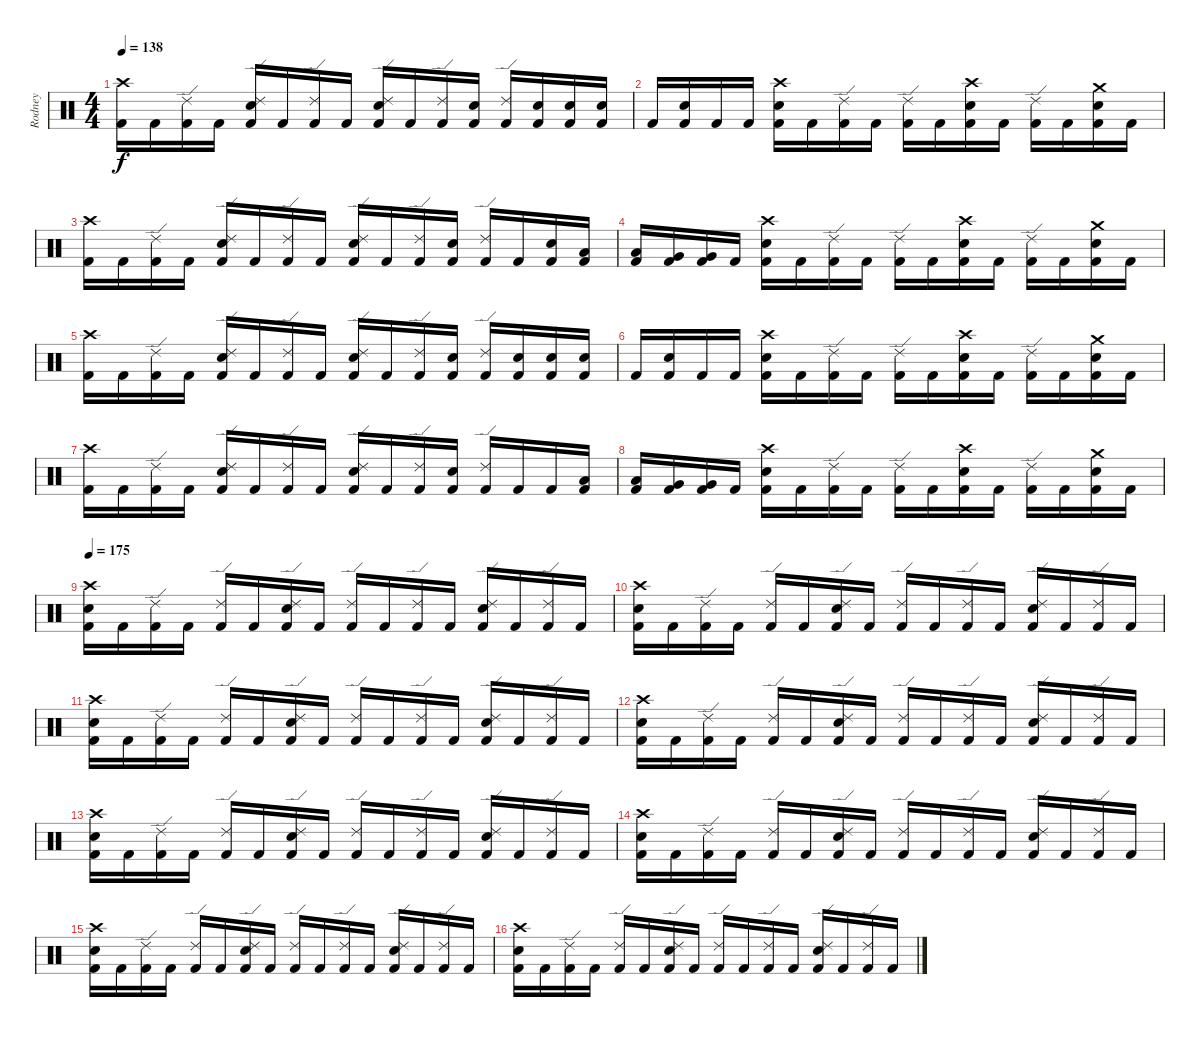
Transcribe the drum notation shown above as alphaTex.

\track ("Rodney" "Rodney") {instrument percussion}
\staff {score}
\articulation defaults
\ts (4 4)
\tempo 138
\clef neutral
\ks c
("Crash high (hit)" "Kick (hit) 2").16{dy f} "Kick (hit) 2".16 ("Ride (edge) 2" "Kick (hit) 2").16 "Kick (hit) 2".16 ("Ride (edge) 2" "Snare (hit) 2" "Kick (hit) 2").16 "Kick (hit) 2".16 ("Ride (edge) 2" "Kick (hit) 2").16 "Kick (hit) 2".16 ("Ride (edge) 2" "Snare (hit) 2" "Kick (hit) 2").16 "Kick (hit) 2".16 ("Ride (edge) 2" "Kick (hit) 2").16 ("Snare (hit) 2" "Kick (hit) 2").16 ("Ride (edge) 2" "Kick (hit) 2").16 ("Snare (hit) 2" "Kick (hit) 2").16 ("Snare (hit) 2" "Kick (hit) 2").16 ("Snare (hit) 2" "Kick (hit) 2").16 |
"Kick (hit) 2".16 ("Snare (hit) 2" "Kick (hit) 2").16 "Kick (hit) 2".16 "Kick (hit) 2".16 ("Crash high (hit)" "Snare (hit) 2" "Kick (hit) 2").16 "Kick (hit) 2".16 ("Ride (edge) 2" "Kick (hit) 2").16 "Kick (hit) 2".16 ("Ride (edge) 2" "Kick (hit) 2").16 "Kick (hit) 2".16 ("Crash high (hit)" "Snare (hit) 2" "Kick (hit) 2").16 "Kick (hit) 2".16 ("Ride (edge) 2" "Kick (hit) 2").16 "Kick (hit) 2".16 ("Crash medium (hit)" "Snare (hit) 2" "Kick (hit) 2").16 "Kick (hit) 2".16 |
("Crash high (hit)" "Kick (hit) 2").16 "Kick (hit) 2".16 ("Ride (edge) 2" "Kick (hit) 2").16 "Kick (hit) 2".16 ("Ride (edge) 2" "Snare (hit) 2" "Kick (hit) 2").16 "Kick (hit) 2".16 ("Ride (edge) 2" "Kick (hit) 2").16 "Kick (hit) 2".16 ("Ride (edge) 2" "Snare (hit) 2" "Kick (hit) 2").16 "Kick (hit) 2".16 ("Ride (edge) 2" "Kick (hit) 2").16 ("Snare (hit) 2" "Kick (hit) 2").16 ("Ride (edge) 2" "Kick (hit) 2").16 "Kick (hit) 2".16 ("Snare (hit) 2" "Kick (hit) 2").16 ("Low Tom (hit)" "Kick (hit) 2").16 |
("Low Tom (hit)" "Kick (hit) 2").16 ("Very Low Tom (hit)" "Kick (hit) 2").16 ("Very Low Tom (hit)" "Kick (hit) 2").16 "Kick (hit) 2".16 ("Crash high (hit)" "Snare (hit) 2" "Kick (hit) 2").16 "Kick (hit) 2".16 ("Ride (edge) 2" "Kick (hit) 2").16 "Kick (hit) 2".16 ("Ride (edge) 2" "Kick (hit) 2").16 "Kick (hit) 2".16 ("Crash high (hit)" "Snare (hit) 2" "Kick (hit) 2").16 "Kick (hit) 2".16 ("Ride (edge) 2" "Kick (hit) 2").16 "Kick (hit) 2".16 ("Crash medium (hit)" "Snare (hit) 2" "Kick (hit) 2").16 "Kick (hit) 2".16 |
("Crash high (hit)" "Kick (hit) 2").16 "Kick (hit) 2".16 ("Ride (edge) 2" "Kick (hit) 2").16 "Kick (hit) 2".16 ("Ride (edge) 2" "Snare (hit) 2" "Kick (hit) 2").16 "Kick (hit) 2".16 ("Ride (edge) 2" "Kick (hit) 2").16 "Kick (hit) 2".16 ("Ride (edge) 2" "Snare (hit) 2" "Kick (hit) 2").16 "Kick (hit) 2".16 ("Ride (edge) 2" "Kick (hit) 2").16 ("Snare (hit) 2" "Kick (hit) 2").16 ("Ride (edge) 2" "Kick (hit) 2").16 ("Snare (hit) 2" "Kick (hit) 2").16 ("Snare (hit) 2" "Kick (hit) 2").16 ("Snare (hit) 2" "Kick (hit) 2").16 |
"Kick (hit) 2".16 ("Snare (hit) 2" "Kick (hit) 2").16 "Kick (hit) 2".16 "Kick (hit) 2".16 ("Crash high (hit)" "Snare (hit) 2" "Kick (hit) 2").16 "Kick (hit) 2".16 ("Ride (edge) 2" "Kick (hit) 2").16 "Kick (hit) 2".16 ("Ride (edge) 2" "Kick (hit) 2").16 "Kick (hit) 2".16 ("Crash high (hit)" "Snare (hit) 2" "Kick (hit) 2").16 "Kick (hit) 2".16 ("Ride (edge) 2" "Kick (hit) 2").16 "Kick (hit) 2".16 ("Crash medium (hit)" "Snare (hit) 2" "Kick (hit) 2").16 "Kick (hit) 2".16 |
("Crash high (hit)" "Kick (hit) 2").16 "Kick (hit) 2".16 ("Ride (edge) 2" "Kick (hit) 2").16 "Kick (hit) 2".16 ("Ride (edge) 2" "Snare (hit) 2" "Kick (hit) 2").16 "Kick (hit) 2".16 ("Ride (edge) 2" "Kick (hit) 2").16 "Kick (hit) 2".16 ("Ride (edge) 2" "Snare (hit) 2" "Kick (hit) 2").16 "Kick (hit) 2".16 ("Ride (edge) 2" "Kick (hit) 2").16 ("Snare (hit) 2" "Kick (hit) 2").16 ("Ride (edge) 2" "Kick (hit) 2").16 "Kick (hit) 2".16 "Kick (hit) 2".16 ("Low Tom (hit)" "Kick (hit) 2").16 |
("Low Tom (hit)" "Kick (hit) 2").16 ("Very Low Tom (hit)" "Kick (hit) 2").16 ("Very Low Tom (hit)" "Kick (hit) 2").16 "Kick (hit) 2".16 ("Crash high (hit)" "Snare (hit) 2" "Kick (hit) 2").16 "Kick (hit) 2".16 ("Ride (edge) 2" "Kick (hit) 2").16 "Kick (hit) 2".16 ("Ride (edge) 2" "Kick (hit) 2").16 "Kick (hit) 2".16 ("Crash high (hit)" "Snare (hit) 2" "Kick (hit) 2").16 "Kick (hit) 2".16 ("Ride (edge) 2" "Kick (hit) 2").16 "Kick (hit) 2".16 ("Crash medium (hit)" "Snare (hit) 2" "Kick (hit) 2").16 "Kick (hit) 2".16 |
\tempo 175
("Crash high (hit)" "Snare (hit) 2" "Kick (hit) 2").16 "Kick (hit) 2".16 ("Ride (edge) 2" "Kick (hit) 2").16 "Kick (hit) 2".16 ("Ride (edge) 2" "Kick (hit) 2").16 "Kick (hit) 2".16 ("Ride (edge) 2" "Snare (hit) 2" "Kick (hit) 2").16 "Kick (hit) 2".16 ("Ride (edge) 2" "Kick (hit) 2").16 "Kick (hit) 2".16 ("Ride (edge) 2" "Kick (hit) 2").16 "Kick (hit) 2".16 ("Ride (edge) 2" "Snare (hit) 2" "Kick (hit) 2").16 "Kick (hit) 2".16 ("Ride (edge) 2" "Kick (hit) 2").16 "Kick (hit) 2".16 |
("Crash high (hit)" "Snare (hit) 2" "Kick (hit) 2").16 "Kick (hit) 2".16 ("Ride (edge) 2" "Kick (hit) 2").16 "Kick (hit) 2".16 ("Ride (edge) 2" "Kick (hit) 2").16 "Kick (hit) 2".16 ("Ride (edge) 2" "Snare (hit) 2" "Kick (hit) 2").16 "Kick (hit) 2".16 ("Ride (edge) 2" "Kick (hit) 2").16 "Kick (hit) 2".16 ("Ride (edge) 2" "Kick (hit) 2").16 "Kick (hit) 2".16 ("Ride (edge) 2" "Snare (hit) 2" "Kick (hit) 2").16 "Kick (hit) 2".16 ("Ride (edge) 2" "Kick (hit) 2").16 "Kick (hit) 2".16 |
("Crash high (hit)" "Snare (hit) 2" "Kick (hit) 2").16 "Kick (hit) 2".16 ("Ride (edge) 2" "Kick (hit) 2").16 "Kick (hit) 2".16 ("Ride (edge) 2" "Kick (hit) 2").16 "Kick (hit) 2".16 ("Ride (edge) 2" "Snare (hit) 2" "Kick (hit) 2").16 "Kick (hit) 2".16 ("Ride (edge) 2" "Kick (hit) 2").16 "Kick (hit) 2".16 ("Ride (edge) 2" "Kick (hit) 2").16 "Kick (hit) 2".16 ("Ride (edge) 2" "Snare (hit) 2" "Kick (hit) 2").16 "Kick (hit) 2".16 ("Ride (edge) 2" "Kick (hit) 2").16 "Kick (hit) 2".16 |
("Crash high (hit)" "Snare (hit) 2" "Kick (hit) 2").16 "Kick (hit) 2".16 ("Ride (edge) 2" "Kick (hit) 2").16 "Kick (hit) 2".16 ("Ride (edge) 2" "Kick (hit) 2").16 "Kick (hit) 2".16 ("Ride (edge) 2" "Snare (hit) 2" "Kick (hit) 2").16 "Kick (hit) 2".16 ("Ride (edge) 2" "Kick (hit) 2").16 "Kick (hit) 2".16 ("Ride (edge) 2" "Kick (hit) 2").16 "Kick (hit) 2".16 ("Ride (edge) 2" "Snare (hit) 2" "Kick (hit) 2").16 "Kick (hit) 2".16 ("Ride (edge) 2" "Kick (hit) 2").16 "Kick (hit) 2".16 |
("Crash high (hit)" "Snare (hit) 2" "Kick (hit) 2").16 "Kick (hit) 2".16 ("Ride (edge) 2" "Kick (hit) 2").16 "Kick (hit) 2".16 ("Ride (edge) 2" "Kick (hit) 2").16 "Kick (hit) 2".16 ("Ride (edge) 2" "Snare (hit) 2" "Kick (hit) 2").16 "Kick (hit) 2".16 ("Ride (edge) 2" "Kick (hit) 2").16 "Kick (hit) 2".16 ("Ride (edge) 2" "Kick (hit) 2").16 "Kick (hit) 2".16 ("Ride (edge) 2" "Snare (hit) 2" "Kick (hit) 2").16 "Kick (hit) 2".16 ("Ride (edge) 2" "Kick (hit) 2").16 "Kick (hit) 2".16 |
("Crash high (hit)" "Snare (hit) 2" "Kick (hit) 2").16 "Kick (hit) 2".16 ("Ride (edge) 2" "Kick (hit) 2").16 "Kick (hit) 2".16 ("Ride (edge) 2" "Kick (hit) 2").16 "Kick (hit) 2".16 ("Ride (edge) 2" "Snare (hit) 2" "Kick (hit) 2").16 "Kick (hit) 2".16 ("Ride (edge) 2" "Kick (hit) 2").16 "Kick (hit) 2".16 ("Ride (edge) 2" "Kick (hit) 2").16 "Kick (hit) 2".16 ("Ride (edge) 2" "Snare (hit) 2" "Kick (hit) 2").16 "Kick (hit) 2".16 ("Ride (edge) 2" "Kick (hit) 2").16 "Kick (hit) 2".16 |
("Crash high (hit)" "Snare (hit) 2" "Kick (hit) 2").16 "Kick (hit) 2".16 ("Ride (edge) 2" "Kick (hit) 2").16 "Kick (hit) 2".16 ("Ride (edge) 2" "Kick (hit) 2").16 "Kick (hit) 2".16 ("Ride (edge) 2" "Snare (hit) 2" "Kick (hit) 2").16 "Kick (hit) 2".16 ("Ride (edge) 2" "Kick (hit) 2").16 "Kick (hit) 2".16 ("Ride (edge) 2" "Kick (hit) 2").16 "Kick (hit) 2".16 ("Ride (edge) 2" "Snare (hit) 2" "Kick (hit) 2").16 "Kick (hit) 2".16 ("Ride (edge) 2" "Kick (hit) 2").16 "Kick (hit) 2".16 |
("Crash high (hit)" "Snare (hit) 2" "Kick (hit) 2").16 "Kick (hit) 2".16 ("Ride (edge) 2" "Kick (hit) 2").16 "Kick (hit) 2".16 ("Ride (edge) 2" "Kick (hit) 2").16 "Kick (hit) 2".16 ("Ride (edge) 2" "Snare (hit) 2" "Kick (hit) 2").16 "Kick (hit) 2".16 ("Ride (edge) 2" "Kick (hit) 2").16 "Kick (hit) 2".16 ("Ride (edge) 2" "Kick (hit) 2").16 "Kick (hit) 2".16 ("Ride (edge) 2" "Snare (hit) 2" "Kick (hit) 2").16 "Kick (hit) 2".16 ("Ride (edge) 2" "Kick (hit) 2").16 "Kick (hit) 2".16
